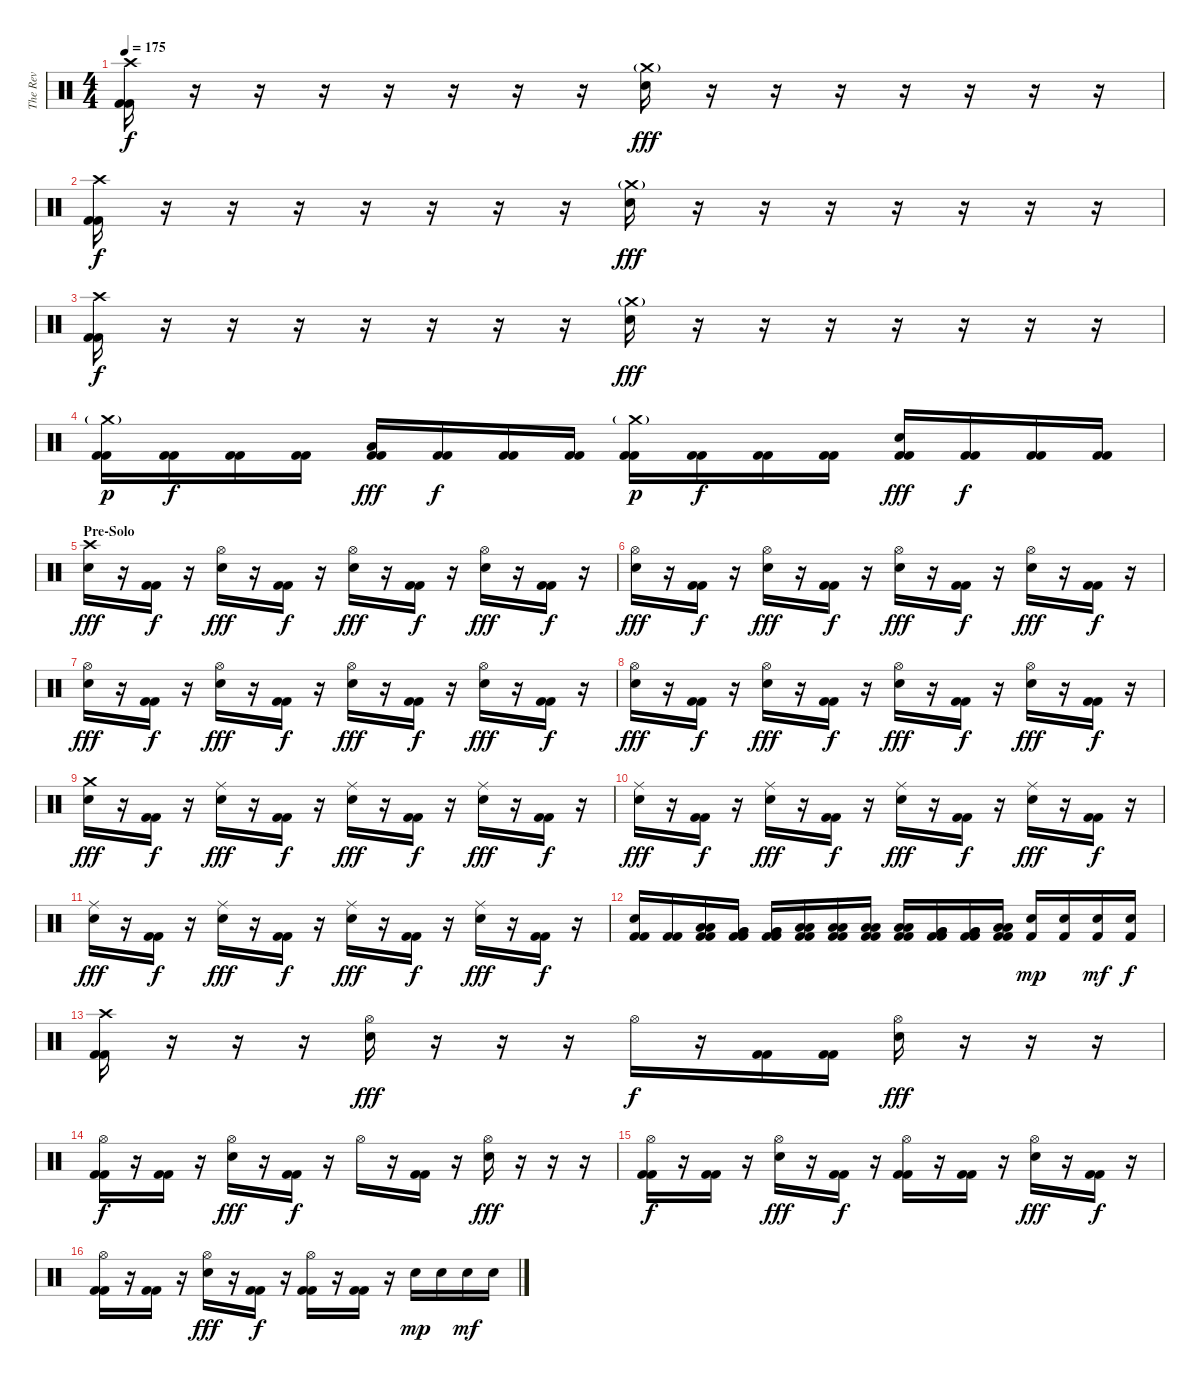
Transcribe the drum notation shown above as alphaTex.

\track ("The Rev" "The Rev") {instrument percussion}
\staff {score}
\articulation defaults
\ts (4 4)
\tempo 175
\clef neutral
\ks c
("Crash high (hit)" "Kick (hit) 2" "Kick (hit) 2").16{dy f} r.16 r.16 r.16 r.16 r.16 r.16 r.16 ("Crash medium (hit)"{g} "Electric Snare (hit)").16{dy fff} r.16 r.16 r.16 r.16 r.16 r.16 r.16 |
("Crash high (hit)" "Kick (hit) 2" "Kick (hit) 2").16{dy f} r.16 r.16 r.16 r.16 r.16 r.16 r.16 ("Crash medium (hit)"{g} "Electric Snare (hit)").16{dy fff} r.16 r.16 r.16 r.16 r.16 r.16 r.16 |
("Crash high (hit)" "Kick (hit) 2" "Kick (hit) 2").16{dy f} r.16 r.16 r.16 r.16 r.16 r.16 r.16 ("Crash medium (hit)"{g} "Electric Snare (hit)").16{dy fff} r.16 r.16 r.16 r.16 r.16 r.16 r.16 |
("Crash medium (hit)"{g} "Kick (hit) 2" "Kick (hit) 2").16{dy p} ("Kick (hit) 2" "Kick (hit) 2").16{dy f} ("Kick (hit) 2" "Kick (hit) 2").16 ("Kick (hit) 2" "Kick (hit) 2").16 ("Low Floor Tom (hit)" "Kick (hit) 2" "Kick (hit) 2").16{dy fff} ("Kick (hit) 2" "Kick (hit) 2").16{dy f} ("Kick (hit) 2" "Kick (hit) 2").16 ("Kick (hit) 2" "Kick (hit) 2").16 ("Crash medium (hit)"{g} "Kick (hit) 2" "Kick (hit) 2").16{dy p} ("Kick (hit) 2" "Kick (hit) 2").16{dy f} ("Kick (hit) 2" "Kick (hit) 2").16 ("Kick (hit) 2" "Kick (hit) 2").16 ("Electric Snare (hit)" "Kick (hit) 2" "Kick (hit) 2").16{dy fff} ("Kick (hit) 2" "Kick (hit) 2").16{dy f} ("Kick (hit) 2" "Kick (hit) 2").16 ("Kick (hit) 2" "Kick (hit) 2").16 |
\section ("" "Pre-Solo")
("Crash high (hit)" "Electric Snare (hit)").16{dy fff} r.16 ("Kick (hit) 2" "Kick (hit) 2").16{dy f} r.16 ("Hi-Hat (open)" "Electric Snare (hit)").16{dy fff} r.16 ("Kick (hit) 2" "Kick (hit) 2").16{dy f} r.16 ("Hi-Hat (open)" "Electric Snare (hit)").16{dy fff} r.16 ("Kick (hit) 2" "Kick (hit) 2").16{dy f} r.16 ("Hi-Hat (open)" "Electric Snare (hit)").16{dy fff} r.16 ("Kick (hit) 2" "Kick (hit) 2").16{dy f} r.16 |
("Hi-Hat (open)" "Electric Snare (hit)").16{dy fff} r.16 ("Kick (hit) 2" "Kick (hit) 2").16{dy f} r.16 ("Hi-Hat (open)" "Electric Snare (hit)").16{dy fff} r.16 ("Kick (hit) 2" "Kick (hit) 2").16{dy f} r.16 ("Hi-Hat (open)" "Electric Snare (hit)").16{dy fff} r.16 ("Kick (hit) 2" "Kick (hit) 2").16{dy f} r.16 ("Hi-Hat (open)" "Electric Snare (hit)").16{dy fff} r.16 ("Kick (hit) 2" "Kick (hit) 2").16{dy f} r.16 |
("Hi-Hat (open)" "Electric Snare (hit)").16{dy fff} r.16 ("Kick (hit) 2" "Kick (hit) 2").16{dy f} r.16 ("Hi-Hat (open)" "Electric Snare (hit)").16{dy fff} r.16 ("Kick (hit) 2" "Kick (hit) 2").16{dy f} r.16 ("Hi-Hat (open)" "Electric Snare (hit)").16{dy fff} r.16 ("Kick (hit) 2" "Kick (hit) 2").16{dy f} r.16 ("Hi-Hat (open)" "Electric Snare (hit)").16{dy fff} r.16 ("Kick (hit) 2" "Kick (hit) 2").16{dy f} r.16 |
("Hi-Hat (open)" "Electric Snare (hit)").16{dy fff} r.16 ("Kick (hit) 2" "Kick (hit) 2").16{dy f} r.16 ("Hi-Hat (open)" "Electric Snare (hit)").16{dy fff} r.16 ("Kick (hit) 2" "Kick (hit) 2").16{dy f} r.16 ("Hi-Hat (open)" "Electric Snare (hit)").16{dy fff} r.16 ("Kick (hit) 2" "Kick (hit) 2").16{dy f} r.16 ("Hi-Hat (open)" "Electric Snare (hit)").16{dy fff} r.16 ("Kick (hit) 2" "Kick (hit) 2").16{dy f} r.16 |
("Crash medium (hit)" "Electric Snare (hit)").16{dy fff} r.16 ("Kick (hit) 2" "Kick (hit) 2").16{dy f} r.16 ("Ride (middle)" "Electric Snare (hit)").16{dy fff} r.16 ("Kick (hit) 2" "Kick (hit) 2").16{dy f} r.16 ("Ride (middle)" "Electric Snare (hit)").16{dy fff} r.16 ("Kick (hit) 2" "Kick (hit) 2").16{dy f} r.16 ("Ride (middle)" "Electric Snare (hit)").16{dy fff} r.16 ("Kick (hit) 2" "Kick (hit) 2").16{dy f} r.16 |
("Ride (middle)" "Electric Snare (hit)").16{dy fff} r.16 ("Kick (hit) 2" "Kick (hit) 2").16{dy f} r.16 ("Ride (middle)" "Electric Snare (hit)").16{dy fff} r.16 ("Kick (hit) 2" "Kick (hit) 2").16{dy f} r.16 ("Ride (middle)" "Electric Snare (hit)").16{dy fff} r.16 ("Kick (hit) 2" "Kick (hit) 2").16{dy f} r.16 ("Ride (middle)" "Electric Snare (hit)").16{dy fff} r.16 ("Kick (hit) 2" "Kick (hit) 2").16{dy f} r.16 |
("Ride (middle)" "Electric Snare (hit)").16{dy fff} r.16 ("Kick (hit) 2" "Kick (hit) 2").16{dy f} r.16 ("Ride (middle)" "Electric Snare (hit)").16{dy fff} r.16 ("Kick (hit) 2" "Kick (hit) 2").16{dy f} r.16 ("Ride (middle)" "Electric Snare (hit)").16{dy fff} r.16 ("Kick (hit) 2" "Kick (hit) 2").16{dy f} r.16 ("Ride (middle)" "Electric Snare (hit)").16{dy fff} r.16 ("Kick (hit) 2" "Kick (hit) 2").16{dy f} r.16 |
("Electric Snare (hit)" "Kick (hit) 2" "Kick (hit) 2").16 ("Kick (hit) 2" "Kick (hit) 2").16 ("Low Floor Tom (hit)" "Low Floor Tom (hit)" "Kick (hit) 2" "Kick (hit) 2").16 ("Very Low Tom (hit)" "Very Low Tom (hit)" "Kick (hit) 2" "Kick (hit) 2").16 ("Very Low Tom (hit)" "Very Low Tom (hit)" "Kick (hit) 2" "Kick (hit) 2").16 ("Low Tom (hit)" "Low Tom (hit)" "Kick (hit) 2" "Kick (hit) 2").16 ("Low Tom (hit)" "Low Tom (hit)" "Kick (hit) 2" "Kick (hit) 2").16 ("Low Floor Tom (hit)" "Low Floor Tom (hit)" "Kick (hit) 2" "Kick (hit) 2").16 ("Low Tom (hit)" "Low Tom (hit)" "Kick (hit) 2" "Kick (hit) 2").16 ("Very Low Tom (hit)" "Very Low Tom (hit)" "Kick (hit) 2" "Kick (hit) 2").16 ("Very Low Tom (hit)" "Very Low Tom (hit)" "Kick (hit) 2" "Kick (hit) 2").16 ("Low Tom (hit)" "Low Tom (hit)" "Kick (hit) 2" "Kick (hit) 2").16 ("Electric Snare (hit)" "Kick (hit) 2").16{dy mp} ("Electric Snare (hit)" "Kick (hit) 2").16 ("Electric Snare (hit)" "Kick (hit) 2").16{dy mf} ("Electric Snare (hit)" "Kick (hit) 2").16{dy f} |
("Crash high (hit)" "Kick (hit) 2" "Kick (hit) 2").16 r.16 r.16 r.16 ("Hi-Hat (open)" "Electric Snare (hit)").16{dy fff} r.16 r.16 r.16 "Hi-Hat (open)".16{dy f} r.16 ("Kick (hit) 2" "Kick (hit) 2").16 ("Kick (hit) 2" "Kick (hit) 2").16 ("Hi-Hat (open)" "Electric Snare (hit)").16{dy fff} r.16 r.16 r.16 |
("Hi-Hat (open)" "Kick (hit) 2" "Kick (hit) 2").16{dy f} r.16 ("Kick (hit) 2" "Kick (hit) 2").16 r.16 ("Hi-Hat (open)" "Electric Snare (hit)").16{dy fff} r.16 ("Kick (hit) 2" "Kick (hit) 2").16{dy f} r.16 "Hi-Hat (open)".16 r.16 ("Kick (hit) 2" "Kick (hit) 2").16 r.16 ("Hi-Hat (open)" "Electric Snare (hit)").16{dy fff} r.16 r.16 r.16 |
("Hi-Hat (open)" "Kick (hit) 2" "Kick (hit) 2").16{dy f} r.16 ("Kick (hit) 2" "Kick (hit) 2").16 r.16 ("Hi-Hat (open)" "Electric Snare (hit)").16{dy fff} r.16 ("Kick (hit) 2" "Kick (hit) 2").16{dy f} r.16 ("Hi-Hat (open)" "Kick (hit) 2" "Kick (hit) 2").16 r.16 ("Kick (hit) 2" "Kick (hit) 2").16 r.16 ("Hi-Hat (open)" "Electric Snare (hit)").16{dy fff} r.16 ("Kick (hit) 2" "Kick (hit) 2").16{dy f} r.16 |
("Hi-Hat (open)" "Kick (hit) 2" "Kick (hit) 2").16 r.16 ("Kick (hit) 2" "Kick (hit) 2").16 r.16 ("Hi-Hat (open)" "Electric Snare (hit)").16{dy fff} r.16 ("Kick (hit) 2" "Kick (hit) 2").16{dy f} r.16 ("Hi-Hat (open)" "Kick (hit) 2" "Kick (hit) 2").16 r.16 ("Kick (hit) 2" "Kick (hit) 2").16 r.16 "Electric Snare (hit)".16{dy mp} "Electric Snare (hit)".16 "Electric Snare (hit)".16{dy mf} "Electric Snare (hit)".16
